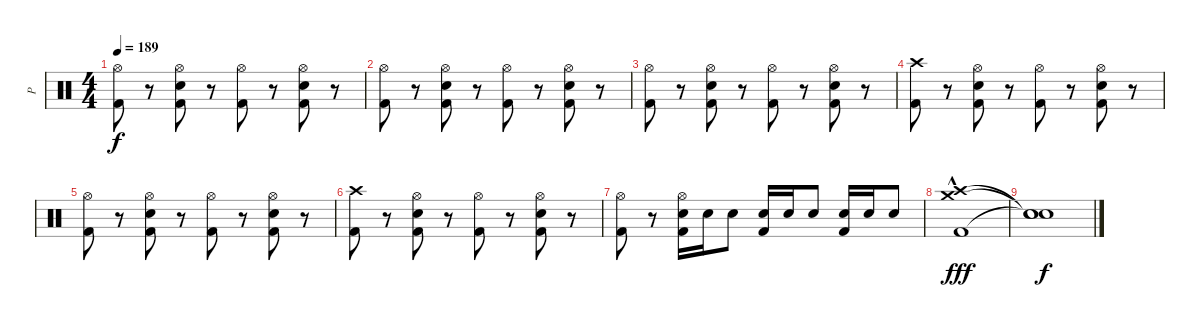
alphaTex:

\track ("P" "P") {instrument percussion}
\staff {score}
\articulation defaults
\ts (4 4)
\tempo 189
\clef neutral
\ks c
("Hi-Hat (open)" "Kick (hit) 2").8{dy f} r.8 ("Hi-Hat (open)" "Electric Snare (hit)" "Kick (hit) 2").8 r.8 ("Hi-Hat (open)" "Kick (hit) 2").8 r.8 ("Hi-Hat (open)" "Electric Snare (hit)" "Kick (hit) 2").8 r.8 |
("Hi-Hat (open)" "Kick (hit) 2").8 r.8 ("Hi-Hat (open)" "Electric Snare (hit)" "Kick (hit) 2").8 r.8 ("Hi-Hat (open)" "Kick (hit) 2").8 r.8 ("Hi-Hat (open)" "Electric Snare (hit)" "Kick (hit) 2").8 r.8 |
("Hi-Hat (open)" "Kick (hit) 2").8 r.8 ("Hi-Hat (open)" "Electric Snare (hit)" "Kick (hit) 2").8 r.8 ("Hi-Hat (open)" "Kick (hit) 2").8 r.8 ("Hi-Hat (open)" "Electric Snare (hit)" "Kick (hit) 2").8 r.8 |
("Crash high (hit)" "Kick (hit) 2").8 r.8 ("Hi-Hat (open)" "Electric Snare (hit)" "Kick (hit) 2").8 r.8 ("Hi-Hat (open)" "Kick (hit) 2").8 r.8 ("Hi-Hat (open)" "Electric Snare (hit)" "Kick (hit) 2").8 r.8 |
("Hi-Hat (open)" "Kick (hit) 2").8 r.8 ("Hi-Hat (open)" "Electric Snare (hit)" "Kick (hit) 2").8 r.8 ("Hi-Hat (open)" "Kick (hit) 2").8 r.8 ("Hi-Hat (open)" "Electric Snare (hit)" "Kick (hit) 2").8 r.8 |
("Crash high (hit)" "Kick (hit) 2").8 r.8 ("Hi-Hat (open)" "Electric Snare (hit)" "Kick (hit) 2").8 r.8 ("Hi-Hat (open)" "Kick (hit) 2").8 r.8 ("Hi-Hat (open)" "Electric Snare (hit)" "Kick (hit) 2").8 r.8 |
("Hi-Hat (open)" "Kick (hit) 2").8 r.8 ("Hi-Hat (open)" "Electric Snare (hit)" "Kick (hit) 2").16 "Electric Snare (hit)".16 "Electric Snare (hit)".8 ("Electric Snare (hit)" "Kick (hit) 2").16 "Electric Snare (hit)".16 "Electric Snare (hit)".8 ("Electric Snare (hit)" "Kick (hit) 2").16 "Electric Snare (hit)".16 "Electric Snare (hit)".8 |
("Crash high (hit)"{hac} "Crash medium (hit)" "Kick (hit) 2"{hac}).1{dy fff} |
("Snare (hit)"{t} "Snare (hit)"{t} "Snare (hit)"{t}).1{dy f}
